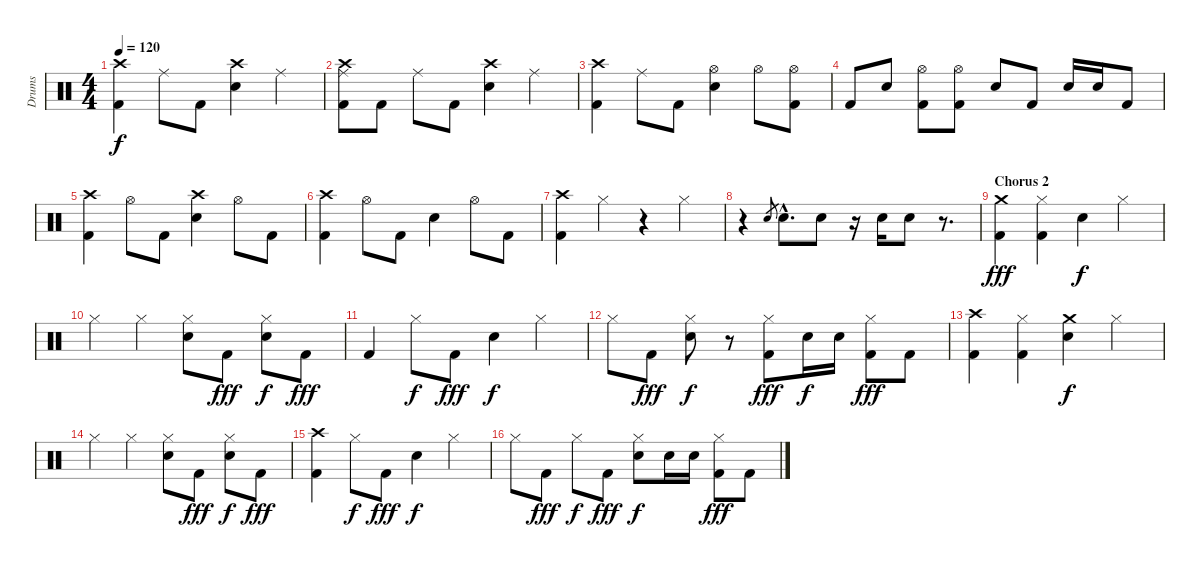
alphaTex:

\track ("Drums" "Drums") {instrument percussion}
\staff {score}
\articulation defaults
\ts (4 4)
\tempo 120
\clef neutral
\ks c
("Kick (hit) 2" "Crash high (hit)").4{dy f} "Ride (middle)".8 "Kick (hit) 2".8 ("Snare (hit) 2" "Crash high (hit)").4 "Ride (middle)".4 |
("Kick (hit) 2" "Ride (middle)" "Crash high (hit)").8 "Kick (hit) 2".8 "Ride (middle)".8 "Kick (hit) 2".8 ("Snare (hit) 2" "Crash high (hit)").4 "Ride (middle)".4 |
("Kick (hit) 2" "Crash high (hit)").4 "Ride (middle)".8 "Kick (hit) 2".8 ("Hi-Hat (open)" "Snare (hit) 2").4 "Hi-Hat (open)".8 ("Kick (hit) 2" "Hi-Hat (open)").8 |
"Kick (hit) 2".8 "Snare (hit) 2".8 ("Kick (hit) 2" "Hi-Hat (open)").8 ("Kick (hit) 2" "Hi-Hat (open)").8 "Snare (hit) 2".8 "Kick (hit) 2".8 "Snare (hit) 2".16 "Snare (hit) 2".16 "Kick (hit) 2".8 |
("Kick (hit) 2" "Crash high (hit)").4 "Hi-Hat (open)".8 "Kick (hit) 2".8 ("Snare (hit) 2" "Crash high (hit)").4 "Hi-Hat (open)".8 "Kick (hit) 2".8 |
("Kick (hit) 2" "Crash high (hit)").4 "Hi-Hat (open)".8 "Kick (hit) 2".8 "Snare (hit) 2".4 "Hi-Hat (open)".8 "Kick (hit) 2".8 |
("Kick (hit) 2" "Crash high (hit)").4 "Hi-Hat (closed)".4 r.4 "Hi-Hat (closed)".4 |
r.4 "Snare (hit) 2".8{gr} "Snare (hit) 2"{hac}.8{d} "Snare (hit) 2".8 r.16 "Snare (hit) 2".16 "Snare (hit) 2".8 r.8{d} |
\section ("" "Chorus 2")
("Kick (hit) 2" "Crash medium (hit)").4{dy fff} ("Kick (hit) 2" "Hi-Hat (closed)").4 "Snare (hit) 2".4{dy f} "Hi-Hat (closed)".4 |
"Hi-Hat (closed)".4 "Hi-Hat (closed)".4 ("Hi-Hat (closed)" "Snare (hit) 2").8 "Kick (hit) 2".8{dy fff} ("Hi-Hat (closed)" "Snare (hit) 2").8{dy f} "Kick (hit) 2".8{dy fff} |
"Kick (hit) 2".4 "Hi-Hat (closed)".8{dy f} "Kick (hit) 2".8{dy fff} "Snare (hit) 2".4{dy f} "Hi-Hat (closed)".4 |
"Hi-Hat (closed)".8 "Kick (hit) 2".8{dy fff} ("Hi-Hat (closed)" "Snare (hit) 2").8{dy f} r.8 ("Kick (hit) 2" "Hi-Hat (closed)").8{dy fff} "Snare (hit) 2".16{dy f} "Snare (hit) 2".16 ("Kick (hit) 2" "Hi-Hat (closed)").8{dy fff} "Kick (hit) 2".8 |
("Kick (hit) 2" "Crash high (hit)").4 ("Kick (hit) 2" "Hi-Hat (closed)").4 ("Snare (hit) 2" "Crash medium (hit)").4{dy f} "Hi-Hat (closed)".4 |
"Hi-Hat (closed)".4 "Hi-Hat (closed)".4 ("Hi-Hat (closed)" "Snare (hit) 2").8 "Kick (hit) 2".8{dy fff} ("Hi-Hat (closed)" "Snare (hit) 2").8{dy f} "Kick (hit) 2".8{dy fff} |
("Kick (hit) 2" "Crash high (hit)").4 "Hi-Hat (closed)".8{dy f} "Kick (hit) 2".8{dy fff} "Snare (hit) 2".4{dy f} "Hi-Hat (closed)".4 |
"Hi-Hat (closed)".8 "Kick (hit) 2".8{dy fff} "Hi-Hat (closed)".8{dy f} "Kick (hit) 2".8{dy fff} ("Hi-Hat (closed)" "Snare (hit) 2").8{dy f} "Snare (hit) 2".16 "Snare (hit) 2".16 ("Kick (hit) 2" "Hi-Hat (closed)").8{dy fff} "Kick (hit) 2".8
